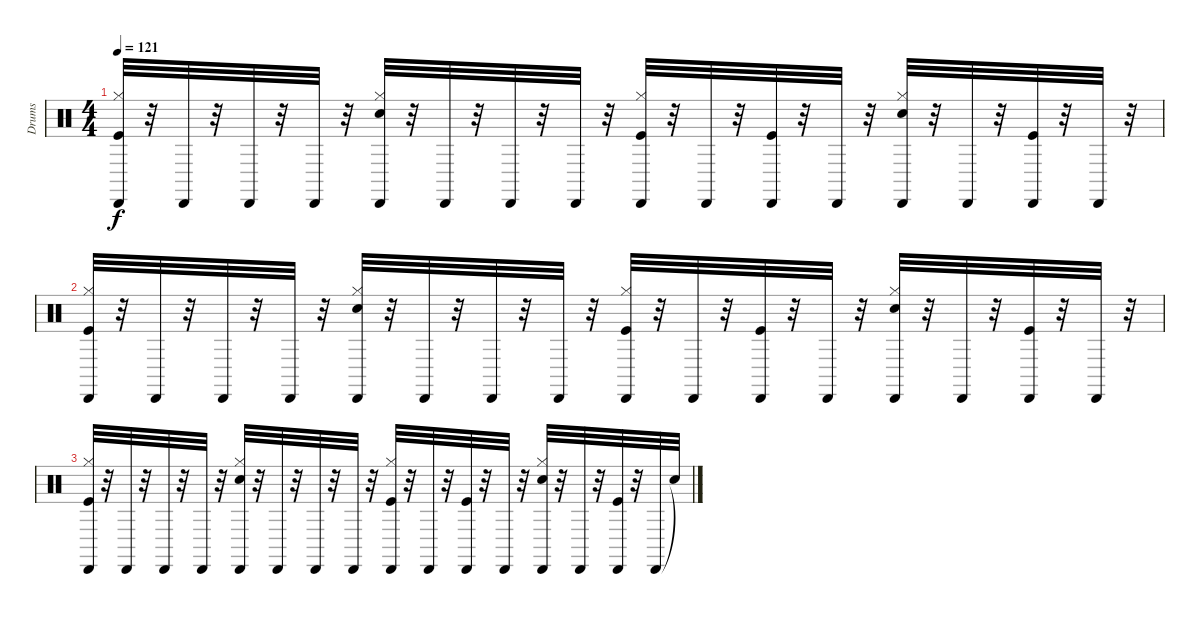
\track ("Drums" "Drums") {instrument percussion}
\staff {score}
\articulation defaults
\ts (4 4)
\tempo 121
\clef neutral
\ks c
("Hi-Hat (closed)" "Kick (hit)" "Cabasa (hit)").32{dy f} r.32 "Cabasa (hit)".32 r.32 "Cabasa (hit)".32 r.32 "Cabasa (hit)".32 r.32 ("Hi-Hat (closed)" "Snare (hit) 2" "Cabasa (hit)").32 r.32 "Cabasa (hit)".32 r.32 "Cabasa (hit)".32 r.32 "Cabasa (hit)".32 r.32 ("Hi-Hat (closed)" "Cabasa (hit)" "Kick (hit)").32 r.32 "Cabasa (hit)".32 r.32 ("Kick (hit)" "Cabasa (hit)").32 r.32 "Cabasa (hit)".32 r.32 ("Hi-Hat (closed)" "Cabasa (hit)" "Snare (hit) 2").32 r.32 "Cabasa (hit)".32 r.32 ("Cabasa (hit)" "Kick (hit)").32 r.32 "Cabasa (hit)".32 r.32 |
("Hi-Hat (closed)" "Kick (hit)" "Cabasa (hit)").32 r.32 "Cabasa (hit)".32 r.32 "Cabasa (hit)".32 r.32 "Cabasa (hit)".32 r.32 ("Hi-Hat (closed)" "Snare (hit) 2" "Cabasa (hit)").32 r.32 "Cabasa (hit)".32 r.32 "Cabasa (hit)".32 r.32 "Cabasa (hit)".32 r.32 ("Hi-Hat (closed)" "Cabasa (hit)" "Kick (hit)").32 r.32 "Cabasa (hit)".32 r.32 ("Cabasa (hit)" "Kick (hit)").32 r.32 "Cabasa (hit)".32 r.32 ("Hi-Hat (closed)" "Snare (hit) 2" "Cabasa (hit)").32 r.32 "Cabasa (hit)".32 r.32 ("Kick (hit)" "Cabasa (hit)").32 r.32 "Cabasa (hit)".32 r.32 |
("Hi-Hat (closed)" "Kick (hit)" "Cabasa (hit)").32 r.32 "Cabasa (hit)".32 r.32 "Cabasa (hit)".32 r.32 "Cabasa (hit)".32 r.32 ("Hi-Hat (closed)" "Snare (hit) 2" "Cabasa (hit)").32 r.32 "Cabasa (hit)".32 r.32 "Cabasa (hit)".32 r.32 "Cabasa (hit)".32 r.32 ("Hi-Hat (closed)" "Cabasa (hit)" "Kick (hit)").32 r.32 "Cabasa (hit)".32 r.32 ("Cabasa (hit)" "Kick (hit)").32 r.32 "Cabasa (hit)".32 r.32 ("Hi-Hat (closed)" "Snare (hit) 2" "Cabasa (hit)").32 r.32 "Cabasa (hit)".32 r.32 ("Kick (hit)" "Cabasa (hit)").32 r.32 "Cabasa (hit)".32 "Snare (hit)"{t}.32
